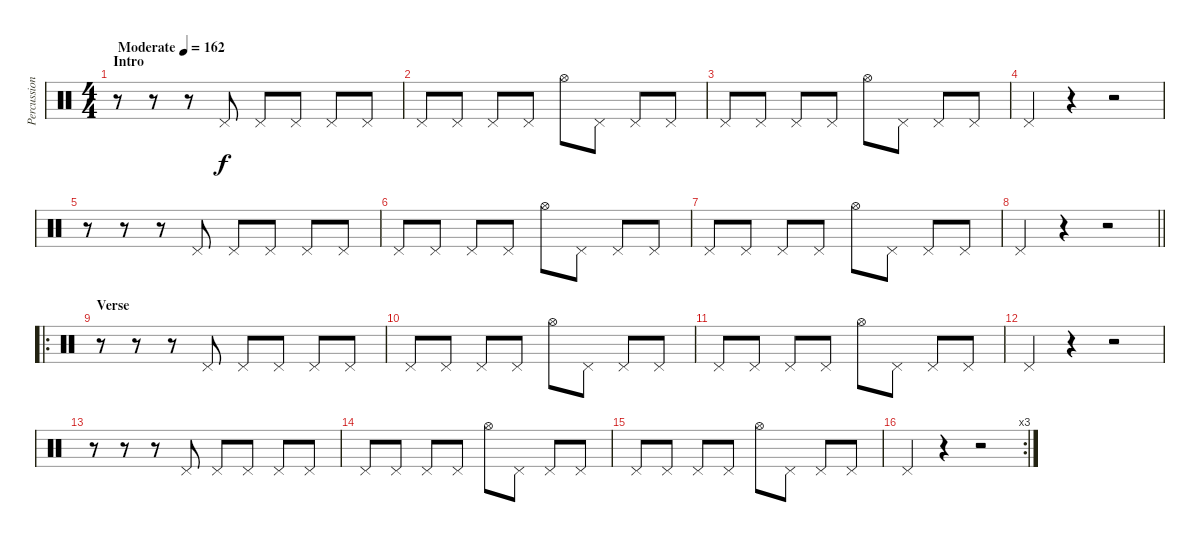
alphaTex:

\track ("Percussion" "Percussion") {instrument percussion}
\staff {score}
\articulation defaults
\ts (4 4)
\section ("" "Intro")
\tempo (162 "Moderate")
\clef neutral
\ks c
r.8{dy f} r.8 r.8 "Pedal Hi-Hat (hit)".8 "Pedal Hi-Hat (hit)".8 "Pedal Hi-Hat (hit)".8 "Pedal Hi-Hat (hit)".8 "Pedal Hi-Hat (hit)".8 |
"Pedal Hi-Hat (hit)".8 "Pedal Hi-Hat (hit)".8 "Pedal Hi-Hat (hit)".8 "Pedal Hi-Hat (hit)".8 "Hi-Hat (open)".8 "Pedal Hi-Hat (hit)".8 "Pedal Hi-Hat (hit)".8 "Pedal Hi-Hat (hit)".8 |
"Pedal Hi-Hat (hit)".8 "Pedal Hi-Hat (hit)".8 "Pedal Hi-Hat (hit)".8 "Pedal Hi-Hat (hit)".8 "Hi-Hat (open)".8 "Pedal Hi-Hat (hit)".8 "Pedal Hi-Hat (hit)".8 "Pedal Hi-Hat (hit)".8 |
"Pedal Hi-Hat (hit)".4 r.4 r.2 |
r.8 r.8 r.8 "Pedal Hi-Hat (hit)".8 "Pedal Hi-Hat (hit)".8 "Pedal Hi-Hat (hit)".8 "Pedal Hi-Hat (hit)".8 "Pedal Hi-Hat (hit)".8 |
"Pedal Hi-Hat (hit)".8 "Pedal Hi-Hat (hit)".8 "Pedal Hi-Hat (hit)".8 "Pedal Hi-Hat (hit)".8 "Hi-Hat (open)".8 "Pedal Hi-Hat (hit)".8 "Pedal Hi-Hat (hit)".8 "Pedal Hi-Hat (hit)".8 |
"Pedal Hi-Hat (hit)".8 "Pedal Hi-Hat (hit)".8 "Pedal Hi-Hat (hit)".8 "Pedal Hi-Hat (hit)".8 "Hi-Hat (open)".8 "Pedal Hi-Hat (hit)".8 "Pedal Hi-Hat (hit)".8 "Pedal Hi-Hat (hit)".8 |
\barLineRight lightlight "Pedal Hi-Hat (hit)".4
r.4 r.2 |
\ro
\section ("" "Verse")
r.8 r.8 r.8 "Pedal Hi-Hat (hit)".8 "Pedal Hi-Hat (hit)".8 "Pedal Hi-Hat (hit)".8 "Pedal Hi-Hat (hit)".8 "Pedal Hi-Hat (hit)".8 |
"Pedal Hi-Hat (hit)".8 "Pedal Hi-Hat (hit)".8 "Pedal Hi-Hat (hit)".8 "Pedal Hi-Hat (hit)".8 "Hi-Hat (open)".8 "Pedal Hi-Hat (hit)".8 "Pedal Hi-Hat (hit)".8 "Pedal Hi-Hat (hit)".8 |
"Pedal Hi-Hat (hit)".8 "Pedal Hi-Hat (hit)".8 "Pedal Hi-Hat (hit)".8 "Pedal Hi-Hat (hit)".8 "Hi-Hat (open)".8 "Pedal Hi-Hat (hit)".8 "Pedal Hi-Hat (hit)".8 "Pedal Hi-Hat (hit)".8 |
"Pedal Hi-Hat (hit)".4 r.4 r.2 |
r.8 r.8 r.8 "Pedal Hi-Hat (hit)".8 "Pedal Hi-Hat (hit)".8 "Pedal Hi-Hat (hit)".8 "Pedal Hi-Hat (hit)".8 "Pedal Hi-Hat (hit)".8 |
"Pedal Hi-Hat (hit)".8 "Pedal Hi-Hat (hit)".8 "Pedal Hi-Hat (hit)".8 "Pedal Hi-Hat (hit)".8 "Hi-Hat (open)".8 "Pedal Hi-Hat (hit)".8 "Pedal Hi-Hat (hit)".8 "Pedal Hi-Hat (hit)".8 |
"Pedal Hi-Hat (hit)".8 "Pedal Hi-Hat (hit)".8 "Pedal Hi-Hat (hit)".8 "Pedal Hi-Hat (hit)".8 "Hi-Hat (open)".8 "Pedal Hi-Hat (hit)".8 "Pedal Hi-Hat (hit)".8 "Pedal Hi-Hat (hit)".8 |
\rc 3 "Pedal Hi-Hat (hit)".4
r.4 r.2
